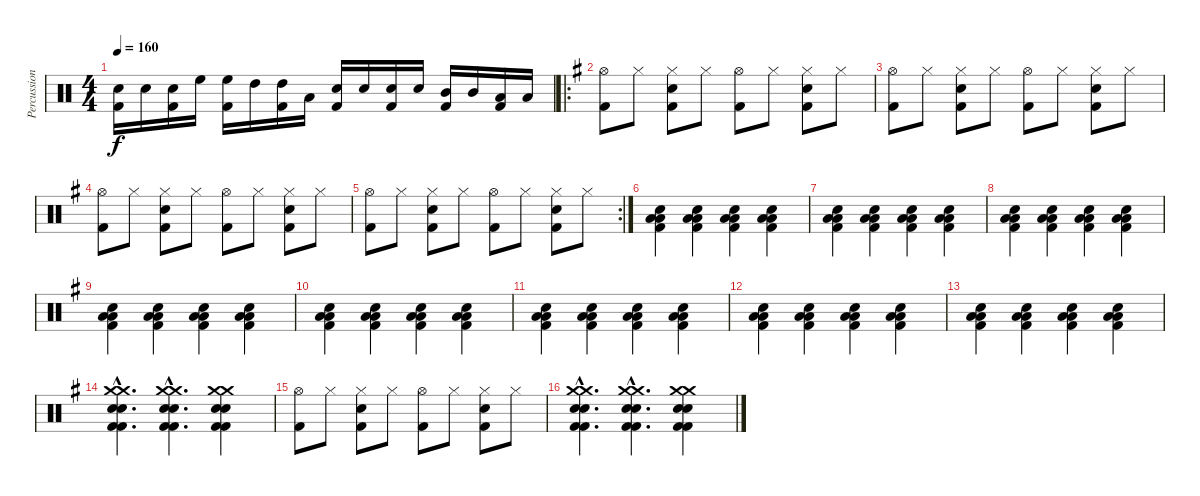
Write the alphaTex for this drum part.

\track ("Percussions" "Percussion") {instrument percussion}
\staff {score}
\articulation defaults
\ts (4 4)
\tempo 160
\clef neutral
\ks c
("Snare (hit) 2" "Kick (hit) 2").16{dy f} "Snare (hit) 2".16 ("Snare (hit) 2" "Kick (hit) 2").16 "High Floor Tom (hit)".16 ("High Floor Tom (hit)" "Kick (hit) 2").16 "High Tom (hit)".16 ("High Tom (hit)" "Kick (hit) 2").16 "Low Tom (hit)".16 ("Snare (hit) 2" "Kick (hit) 2").16 "Snare (hit) 2".16 ("Snare (hit) 2" "Kick (hit) 2").16 "Snare (hit) 2".16 ("Mid Tom (hit)" "Kick (hit) 2").16 "Mid Tom (hit)".16 ("Low Tom (hit)" "Kick (hit) 2").16 "Low Tom (hit)".16 |
\ro
\ks g
("Hi-Hat (open)" "Kick (hit) 2").8 "Hi-Hat (closed)".8 ("Hi-Hat (closed)" "Snare (hit) 2" "Kick (hit) 2").8 "Hi-Hat (closed)".8 ("Hi-Hat (open)" "Kick (hit) 2").8 "Hi-Hat (closed)".8 ("Hi-Hat (closed)" "Snare (hit) 2" "Kick (hit) 2").8 "Hi-Hat (closed)".8 |
("Hi-Hat (open)" "Kick (hit) 2").8 "Hi-Hat (closed)".8 ("Hi-Hat (closed)" "Snare (hit) 2" "Kick (hit) 2").8 "Hi-Hat (closed)".8 ("Hi-Hat (open)" "Kick (hit) 2").8 "Hi-Hat (closed)".8 ("Hi-Hat (closed)" "Snare (hit) 2" "Kick (hit) 2").8 "Hi-Hat (closed)".8 |
("Hi-Hat (open)" "Kick (hit) 2").8 "Hi-Hat (closed)".8 ("Hi-Hat (closed)" "Snare (hit) 2" "Kick (hit) 2").8 "Hi-Hat (closed)".8 ("Hi-Hat (open)" "Kick (hit) 2").8 "Hi-Hat (closed)".8 ("Hi-Hat (closed)" "Snare (hit) 2" "Kick (hit) 2").8 "Hi-Hat (closed)".8 |
\rc 2
("Hi-Hat (open)" "Kick (hit) 2").8 "Hi-Hat (closed)".8 ("Hi-Hat (closed)" "Snare (hit) 2" "Kick (hit) 2").8 "Hi-Hat (closed)".8 ("Hi-Hat (open)" "Kick (hit) 2").8 "Hi-Hat (closed)".8 ("Hi-Hat (closed)" "Snare (hit) 2" "Kick (hit) 2").8 "Hi-Hat (closed)".8 |
("Low Tom (hit)" "Snare (hit) 2" "Low Tom (hit)" "Kick (hit) 2").4 ("Low Tom (hit)" "Snare (hit) 2" "Low Tom (hit)" "Kick (hit) 2").4 ("Low Tom (hit)" "Snare (hit) 2" "Low Tom (hit)" "Kick (hit) 2").4 ("Low Tom (hit)" "Snare (hit) 2" "Low Tom (hit)" "Kick (hit) 2").4 |
("Low Tom (hit)" "Snare (hit) 2" "Low Tom (hit)" "Kick (hit) 2").4 ("Low Tom (hit)" "Snare (hit) 2" "Low Tom (hit)" "Kick (hit) 2").4 ("Low Tom (hit)" "Snare (hit) 2" "Low Tom (hit)" "Kick (hit) 2").4 ("Low Tom (hit)" "Snare (hit) 2" "Low Tom (hit)" "Kick (hit) 2").4 |
("Low Tom (hit)" "Snare (hit) 2" "Low Tom (hit)" "Kick (hit) 2").4 ("Low Tom (hit)" "Snare (hit) 2" "Low Tom (hit)" "Kick (hit) 2").4 ("Low Tom (hit)" "Snare (hit) 2" "Low Tom (hit)" "Kick (hit) 2").4 ("Low Tom (hit)" "Snare (hit) 2" "Low Tom (hit)" "Kick (hit) 2").4 |
("Low Tom (hit)" "Snare (hit) 2" "Low Tom (hit)" "Kick (hit) 2").4 ("Low Tom (hit)" "Snare (hit) 2" "Low Tom (hit)" "Kick (hit) 2").4 ("Low Tom (hit)" "Snare (hit) 2" "Low Tom (hit)" "Kick (hit) 2").4 ("Low Tom (hit)" "Snare (hit) 2" "Low Tom (hit)" "Kick (hit) 2").4 |
("Low Tom (hit)" "Snare (hit) 2" "Low Tom (hit)" "Kick (hit) 2").4 ("Low Tom (hit)" "Snare (hit) 2" "Low Tom (hit)" "Kick (hit) 2").4 ("Low Tom (hit)" "Snare (hit) 2" "Low Tom (hit)" "Kick (hit) 2").4 ("Low Tom (hit)" "Snare (hit) 2" "Low Tom (hit)" "Kick (hit) 2").4 |
("Low Tom (hit)" "Snare (hit) 2" "Low Tom (hit)" "Kick (hit) 2").4 ("Low Tom (hit)" "Snare (hit) 2" "Low Tom (hit)" "Kick (hit) 2").4 ("Low Tom (hit)" "Snare (hit) 2" "Low Tom (hit)" "Kick (hit) 2").4 ("Low Tom (hit)" "Snare (hit) 2" "Low Tom (hit)" "Kick (hit) 2").4 |
("Low Tom (hit)" "Snare (hit) 2" "Low Tom (hit)" "Kick (hit) 2").4 ("Low Tom (hit)" "Snare (hit) 2" "Low Tom (hit)" "Kick (hit) 2").4 ("Low Tom (hit)" "Snare (hit) 2" "Low Tom (hit)" "Kick (hit) 2").4 ("Low Tom (hit)" "Snare (hit) 2" "Low Tom (hit)" "Kick (hit) 2").4 |
("Low Tom (hit)" "Snare (hit) 2" "Low Tom (hit)" "Kick (hit) 2").4 ("Low Tom (hit)" "Snare (hit) 2" "Low Tom (hit)" "Kick (hit) 2").4 ("Low Tom (hit)" "Snare (hit) 2" "Low Tom (hit)" "Kick (hit) 2").4 ("Low Tom (hit)" "Snare (hit) 2" "Low Tom (hit)" "Kick (hit) 2").4 |
("Crash medium (hit)"{hac} "Crash medium (hit)"{hac} "Snare (hit) 2"{hac} "Snare (hit) 2"{hac} "Kick (hit) 2"{hac} "Kick (hit) 2"{hac}).4{d} ("Crash medium (hit)"{hac} "Crash medium (hit)"{hac} "Snare (hit) 2"{hac} "Snare (hit) 2"{hac} "Kick (hit) 2"{hac} "Kick (hit) 2"{hac}).4{d} ("Crash medium (hit)" "Crash medium (hit)" "Snare (hit) 2" "Snare (hit) 2" "Kick (hit) 2" "Kick (hit) 2").4 |
("Hi-Hat (open)" "Kick (hit) 2").8 "Hi-Hat (closed)".8 ("Hi-Hat (closed)" "Snare (hit) 2" "Kick (hit) 2").8 "Hi-Hat (closed)".8 ("Hi-Hat (open)" "Kick (hit) 2").8 "Hi-Hat (closed)".8 ("Hi-Hat (closed)" "Snare (hit) 2" "Kick (hit) 2").8 "Hi-Hat (closed)".8 |
("Crash medium (hit)"{hac} "Crash medium (hit)"{hac} "Snare (hit) 2"{hac} "Snare (hit) 2"{hac} "Kick (hit) 2"{hac} "Kick (hit) 2"{hac}).4{d} ("Crash medium (hit)"{hac} "Crash medium (hit)"{hac} "Snare (hit) 2"{hac} "Snare (hit) 2"{hac} "Kick (hit) 2"{hac} "Kick (hit) 2"{hac}).4{d} ("Crash medium (hit)" "Crash medium (hit)" "Snare (hit) 2" "Snare (hit) 2" "Kick (hit) 2" "Kick (hit) 2").4
